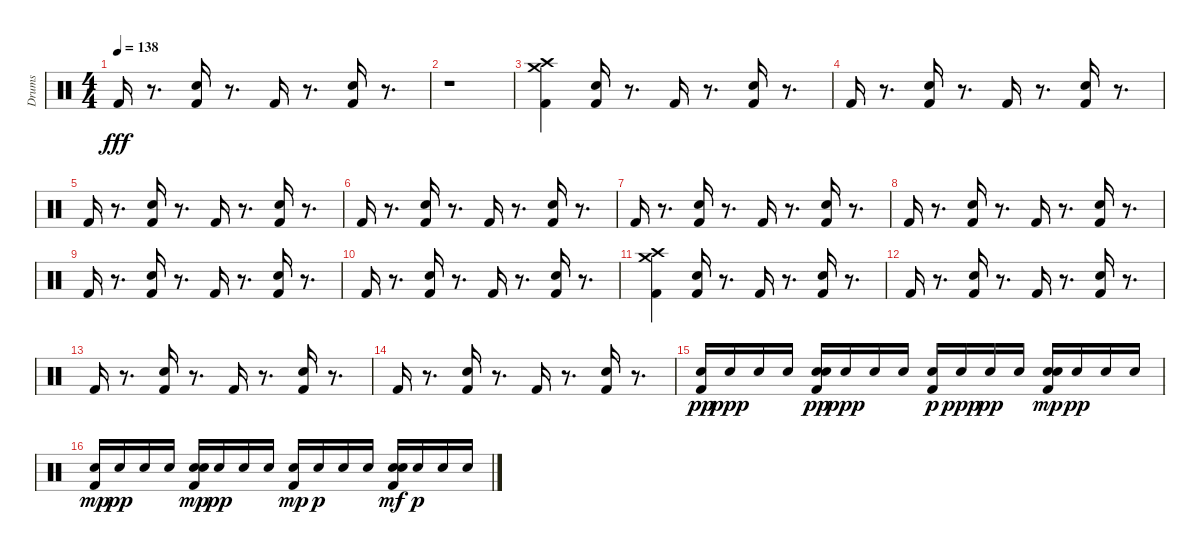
\track ("Drums" "Drums") {instrument percussion}
\staff {score}
\articulation defaults
\ts (4 4)
\tempo 138
\clef neutral
\ks c "Kick (hit) 2".16{dy fff}
r.8{d} ("Kick (hit) 2" "Hand Clap (hit)").16 r.8{d} "Kick (hit) 2".16 r.8{d} ("Kick (hit) 2" "Hand Clap (hit)").16 r.8{d} |
r.1 |
("Kick (hit) 2" "Crash high (hit)" "Crash medium (hit)").4 ("Kick (hit) 2" "Hand Clap (hit)").16 r.8{d} "Kick (hit) 2".16 r.8{d} ("Kick (hit) 2" "Hand Clap (hit)").16 r.8{d} |
"Kick (hit) 2".16 r.8{d} ("Kick (hit) 2" "Hand Clap (hit)").16 r.8{d} "Kick (hit) 2".16 r.8{d} ("Kick (hit) 2" "Hand Clap (hit)").16 r.8{d} |
"Kick (hit) 2".16 r.8{d} ("Kick (hit) 2" "Hand Clap (hit)").16 r.8{d} "Kick (hit) 2".16 r.8{d} ("Kick (hit) 2" "Hand Clap (hit)").16 r.8{d} |
"Kick (hit) 2".16 r.8{d} ("Kick (hit) 2" "Hand Clap (hit)").16 r.8{d} "Kick (hit) 2".16 r.8{d} ("Kick (hit) 2" "Hand Clap (hit)").16 r.8{d} |
"Kick (hit) 2".16 r.8{d} ("Kick (hit) 2" "Hand Clap (hit)").16 r.8{d} "Kick (hit) 2".16 r.8{d} ("Kick (hit) 2" "Hand Clap (hit)").16 r.8{d} |
"Kick (hit) 2".16 r.8{d} ("Kick (hit) 2" "Hand Clap (hit)").16 r.8{d} "Kick (hit) 2".16 r.8{d} ("Kick (hit) 2" "Hand Clap (hit)").16 r.8{d} |
"Kick (hit) 2".16 r.8{d} ("Kick (hit) 2" "Hand Clap (hit)").16 r.8{d} "Kick (hit) 2".16 r.8{d} ("Kick (hit) 2" "Hand Clap (hit)").16 r.8{d} |
"Kick (hit) 2".16 r.8{d} ("Kick (hit) 2" "Hand Clap (hit)").16 r.8{d} "Kick (hit) 2".16 r.8{d} ("Kick (hit) 2" "Hand Clap (hit)").16 r.8{d} |
("Kick (hit) 2" "Crash high (hit)" "Crash medium (hit)").4 ("Kick (hit) 2" "Hand Clap (hit)").16 r.8{d} "Kick (hit) 2".16 r.8{d} ("Kick (hit) 2" "Hand Clap (hit)").16 r.8{d} |
"Kick (hit) 2".16 r.8{d} ("Kick (hit) 2" "Hand Clap (hit)").16 r.8{d} "Kick (hit) 2".16 r.8{d} ("Kick (hit) 2" "Hand Clap (hit)").16 r.8{d} |
"Kick (hit) 2".16 r.8{d} ("Kick (hit) 2" "Hand Clap (hit)").16 r.8{d} "Kick (hit) 2".16 r.8{d} ("Kick (hit) 2" "Hand Clap (hit)").16 r.8{d} |
"Kick (hit) 2".16 r.8{d} ("Kick (hit) 2" "Hand Clap (hit)").16 r.8{d} "Kick (hit) 2".16 r.8{d} ("Kick (hit) 2" "Hand Clap (hit)").16 r.8{d} |
("Kick (hit) 2" "Snare (hit) 2").16{dy pp} "Snare (hit) 2".16{dy ppp} "Snare (hit) 2".16 "Snare (hit) 2".16 ("Kick (hit) 2" "Hand Clap (hit)" "Snare (hit) 2").16{dy pp} "Snare (hit) 2".16{dy ppp} "Snare (hit) 2".16 "Snare (hit) 2".16 ("Kick (hit) 2" "Snare (hit) 2").16{dy p} "Snare (hit) 2".16{dy ppp} "Snare (hit) 2".16{dy pp} "Snare (hit) 2".16 ("Kick (hit) 2" "Hand Clap (hit)" "Snare (hit) 2").16{dy mp} "Snare (hit) 2".16{dy pp} "Snare (hit) 2".16 "Snare (hit) 2".16 |
("Kick (hit) 2" "Snare (hit) 2").16{dy mp} "Snare (hit) 2".16{dy pp} "Snare (hit) 2".16 "Snare (hit) 2".16 ("Kick (hit) 2" "Hand Clap (hit)" "Snare (hit) 2").16{dy mp} "Snare (hit) 2".16{dy pp} "Snare (hit) 2".16 "Snare (hit) 2".16 ("Kick (hit) 2" "Snare (hit) 2").16{dy mp} "Snare (hit) 2".16{dy p} "Snare (hit) 2".16 "Snare (hit) 2".16 ("Kick (hit) 2" "Hand Clap (hit)" "Snare (hit) 2").16{dy mf} "Snare (hit) 2".16{dy p} "Snare (hit) 2".16 "Snare (hit) 2".16
